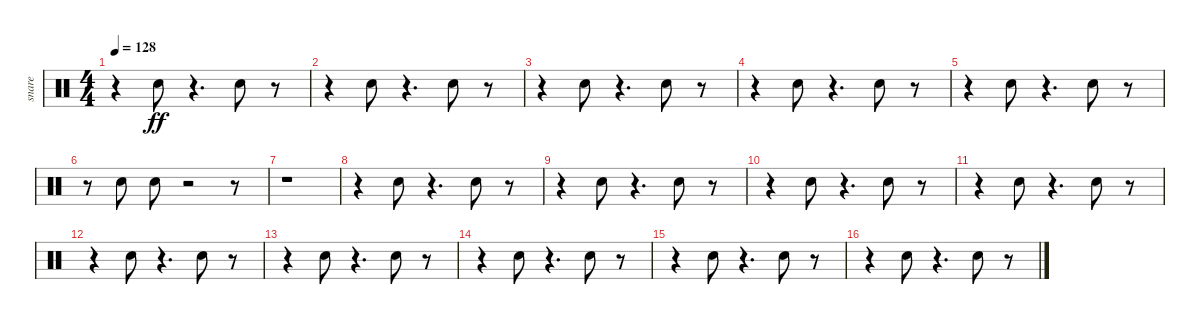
\track ("snare" "snare") {instrument percussion}
\staff {score}
\articulation defaults
\ts (4 4)
\tempo 128
\clef neutral
\ks c
r.4{dy ff} "Electric Snare (hit)".8 r.4{d} "Electric Snare (hit)".8 r.8 |
r.4 "Electric Snare (hit)".8 r.4{d} "Electric Snare (hit)".8 r.8 |
r.4 "Electric Snare (hit)".8 r.4{d} "Electric Snare (hit)".8 r.8 |
r.4 "Electric Snare (hit)".8 r.4{d} "Electric Snare (hit)".8 r.8 |
r.4 "Electric Snare (hit)".8 r.4{d} "Electric Snare (hit)".8 r.8 |
r.8 "Electric Snare (hit)".8 "Electric Snare (hit)".8 r.2 r.8 |
r.1 |
r.4 "Electric Snare (hit)".8 r.4{d} "Electric Snare (hit)".8 r.8 |
r.4 "Electric Snare (hit)".8 r.4{d} "Electric Snare (hit)".8 r.8 |
r.4 "Electric Snare (hit)".8 r.4{d} "Electric Snare (hit)".8 r.8 |
r.4 "Electric Snare (hit)".8 r.4{d} "Electric Snare (hit)".8 r.8 |
r.4 "Electric Snare (hit)".8 r.4{d} "Electric Snare (hit)".8 r.8 |
r.4 "Electric Snare (hit)".8 r.4{d} "Electric Snare (hit)".8 r.8 |
r.4 "Electric Snare (hit)".8 r.4{d} "Electric Snare (hit)".8 r.8 |
r.4 "Electric Snare (hit)".8 r.4{d} "Electric Snare (hit)".8 r.8 |
r.4 "Electric Snare (hit)".8 r.4{d} "Electric Snare (hit)".8 r.8
